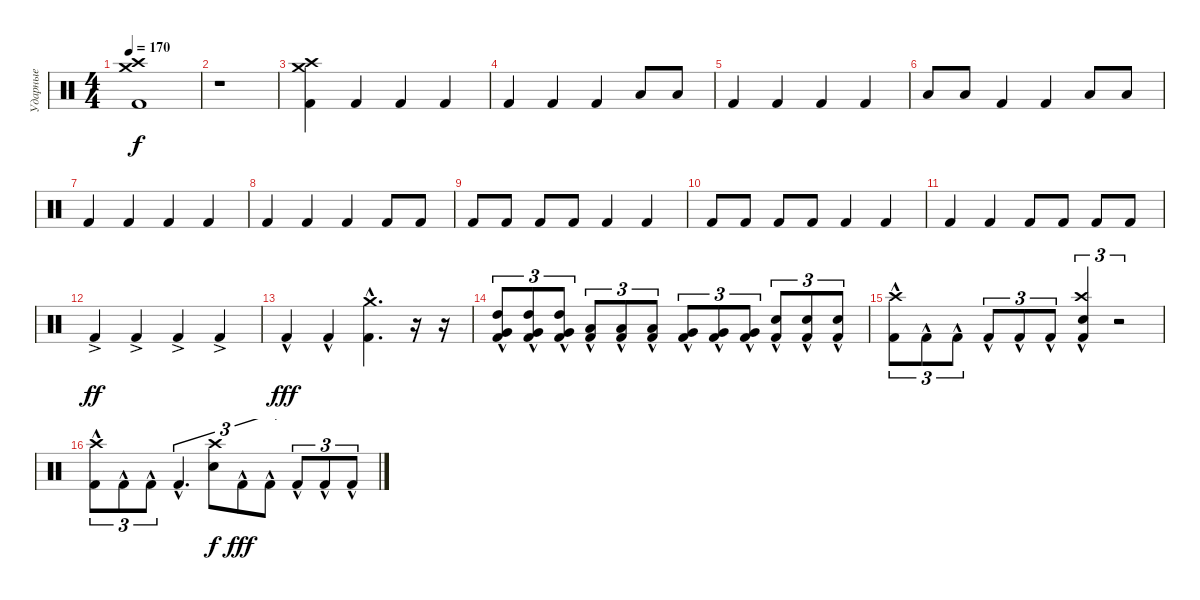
\track ("Ударные" "Ударные") {instrument percussion}
\staff {score}
\articulation defaults
\ts (4 4)
\tempo 170
\clef neutral
\ks c
("Kick (hit) 2" "Crash high (hit)" "Crash medium (hit)").1{dy f} |
r.1{volume 8} |
("Kick (hit) 2" "Crash high (hit)" "Crash medium (hit)").4 "Kick (hit) 2".4 "Kick (hit) 2".4 "Kick (hit) 2".4 |
"Kick (hit) 2".4 "Kick (hit) 2".4 "Kick (hit) 2".4 "Low Floor Tom (hit)".8 "Low Floor Tom (hit)".8 |
"Kick (hit) 2".4 "Kick (hit) 2".4 "Kick (hit) 2".4 "Kick (hit) 2".4 |
"Low Tom (hit)".8 "Low Tom (hit)".8 "Kick (hit) 2".4 "Kick (hit) 2".4 "Low Tom (hit)".8 "Low Tom (hit)".8 |
"Kick (hit) 2".4 "Kick (hit) 2".4 "Kick (hit) 2".4 "Kick (hit) 2".4 |
"Kick (hit) 2".4 "Kick (hit) 2".4 "Kick (hit) 2".4 "Kick (hit) 2".8 "Kick (hit) 2".8 |
"Kick (hit) 2".8{volume 16} "Kick (hit) 2".8 "Kick (hit) 2".8 "Kick (hit) 2".8 "Kick (hit) 2".4 "Kick (hit) 2".4 |
"Kick (hit) 2".8 "Kick (hit) 2".8 "Kick (hit) 2".8 "Kick (hit) 2".8 "Kick (hit) 2".4 "Kick (hit) 2".4 |
"Kick (hit) 2".4 "Kick (hit) 2".4 "Kick (hit) 2".8 "Kick (hit) 2".8 "Kick (hit) 2".8 "Kick (hit) 2".8 |
"Kick (hit) 2"{ac}.4{dy ff} "Kick (hit) 2"{ac}.4 "Kick (hit) 2"{ac}.4 "Kick (hit) 2"{ac}.4 |
"Kick (hit) 2"{hac}.4{dy fff} "Kick (hit) 2"{hac}.4 ("Kick (hit) 2"{hac} "Crash medium (hit)").4{d} r.16 r.16{volume 5} |
("Very Low Tom (hit)"{hac} "Kick (hit) 2"{hac} "High Tom (hit)"{hac}).8{tu (3 2) volume 16} ("Very Low Tom (hit)"{hac} "Kick (hit) 2"{hac} "High Tom (hit)"{hac}).8{tu (3 2)} ("Very Low Tom (hit)"{hac} "Kick (hit) 2"{hac} "High Tom (hit)"{hac}).8{tu (3 2)} ("Low Tom (hit)"{hac} "Kick (hit) 2"{hac}).8{tu (3 2)} ("Low Tom (hit)"{hac} "Kick (hit) 2"{hac}).8{tu (3 2)} ("Low Tom (hit)"{hac} "Kick (hit) 2"{hac}).8{tu (3 2)} ("Very Low Tom (hit)"{hac} "Kick (hit) 2"{hac}).8{tu (3 2)} ("Very Low Tom (hit)"{hac} "Kick (hit) 2"{hac}).8{tu (3 2)} ("Very Low Tom (hit)"{hac} "Kick (hit) 2"{hac}).8{tu (3 2)} ("Kick (hit) 2"{hac} "Snare (hit) 2").8{tu (3 2)} ("Kick (hit) 2"{hac} "Snare (hit) 2").8{tu (3 2)} ("Kick (hit) 2"{hac} "Snare (hit) 2").8{tu (3 2)} |
("Kick (hit) 2"{hac} "Crash high (hit)").8{tu (3 2)} "Kick (hit) 2"{hac}.8{tu (3 2)} "Kick (hit) 2"{hac}.8{tu (3 2)} "Kick (hit) 2"{hac}.8{tu (3 2)} "Kick (hit) 2"{hac}.8{tu (3 2)} "Kick (hit) 2"{hac}.8{tu (3 2)} ("Kick (hit) 2"{hac} "Snare (hit) 2" "Crash high (hit)").4{tu (3 2)} r.2{tu (3 2)} |
("Kick (hit) 2"{hac} "Crash high (hit)").8{tu (3 2)} "Kick (hit) 2"{hac}.8{tu (3 2)} "Kick (hit) 2"{hac}.8{tu (3 2)} "Kick (hit) 2"{hac}.4{d tu (3 2)} ("Snare (hit) 2" "Crash high (hit)").8{tu (3 2) dy f} "Kick (hit) 2"{hac}.8{tu (3 2) dy fff} "Kick (hit) 2"{hac}.8{tu (3 2)} "Kick (hit) 2"{hac}.8{tu (3 2)} "Kick (hit) 2"{hac}.8{tu (3 2)} "Kick (hit) 2"{hac}.8{tu (3 2)}
